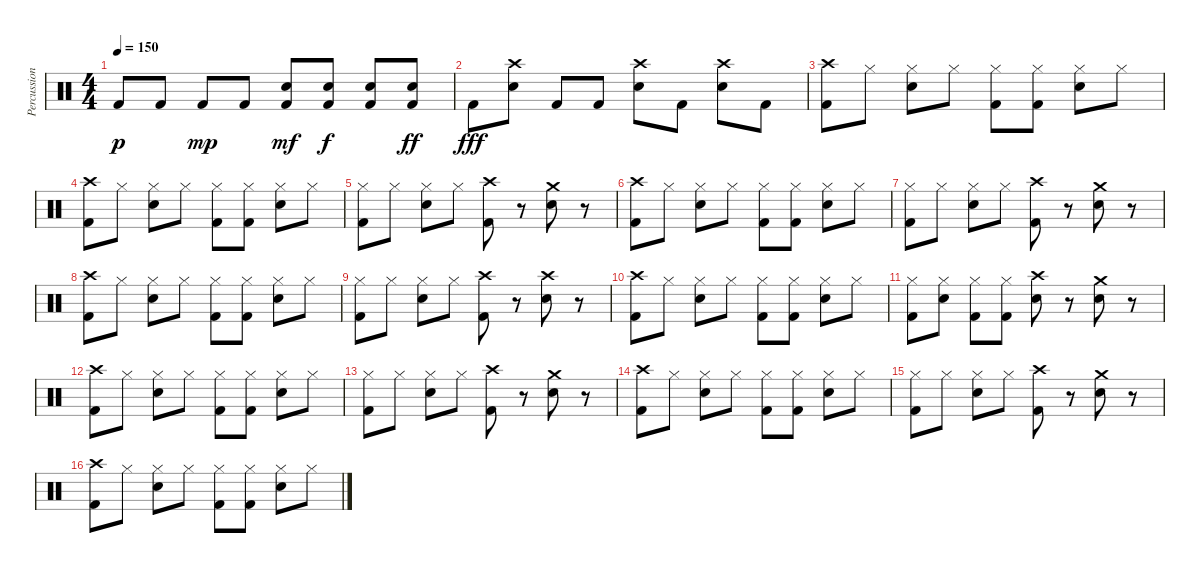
\track ("Percussion" "Percussion") {instrument percussion}
\staff {score}
\articulation defaults
\ts (4 4)
\tempo 150
\clef neutral
\ks c "Kick (hit) 2".8{dy p} "Kick (hit) 2".8 "Kick (hit) 2".8{dy mp} "Kick (hit) 2".8
("Kick (hit) 2" "Snare (hit) 2").8{dy mf} ("Kick (hit) 2" "Snare (hit) 2").8{dy f} ("Kick (hit) 2" "Snare (hit) 2").8 ("Kick (hit) 2" "Snare (hit) 2").8{dy ff} |
"Kick (hit) 2".8{dy fff} ("Snare (hit) 2" "Crash high (hit)").8 "Kick (hit) 2".8 "Kick (hit) 2".8 ("Snare (hit) 2" "Crash high (hit)").8 "Kick (hit) 2".8 ("Snare (hit) 2" "Crash high (hit)").8 "Kick (hit) 2".8 |
("Crash high (hit)" "Kick (hit) 2").8 "Hi-Hat (closed)".8 ("Hi-Hat (closed)" "Snare (hit) 2").8 "Hi-Hat (closed)".8 ("Hi-Hat (closed)" "Kick (hit) 2").8 ("Hi-Hat (closed)" "Kick (hit) 2").8 ("Hi-Hat (closed)" "Snare (hit) 2").8 "Hi-Hat (closed)".8 |
("Crash high (hit)" "Kick (hit) 2").8 "Hi-Hat (closed)".8 ("Hi-Hat (closed)" "Snare (hit) 2").8 "Hi-Hat (closed)".8 ("Hi-Hat (closed)" "Kick (hit) 2").8 ("Hi-Hat (closed)" "Kick (hit) 2").8 ("Hi-Hat (closed)" "Snare (hit) 2").8 "Hi-Hat (closed)".8 |
("Hi-Hat (closed)" "Kick (hit) 2").8 "Hi-Hat (closed)".8 ("Hi-Hat (closed)" "Snare (hit) 2").8 "Hi-Hat (closed)".8 ("Crash high (hit)" "Kick (hit) 2").8 r.8 ("Snare (hit) 2" "Crash medium (hit)").8 r.8 |
("Kick (hit) 2" "Crash high (hit)").8 "Hi-Hat (closed)".8 ("Hi-Hat (closed)" "Snare (hit) 2").8 "Hi-Hat (closed)".8 ("Hi-Hat (closed)" "Kick (hit) 2").8 ("Hi-Hat (closed)" "Kick (hit) 2").8 ("Hi-Hat (closed)" "Snare (hit) 2").8 "Hi-Hat (closed)".8 |
("Hi-Hat (closed)" "Kick (hit) 2").8 "Hi-Hat (closed)".8 ("Hi-Hat (closed)" "Snare (hit) 2").8 "Hi-Hat (closed)".8 ("Crash high (hit)" "Kick (hit) 2").8 r.8 ("Snare (hit) 2" "Crash medium (hit)").8 r.8 |
("Kick (hit) 2" "Crash high (hit)").8 "Hi-Hat (closed)".8 ("Hi-Hat (closed)" "Snare (hit) 2").8 "Hi-Hat (closed)".8 ("Hi-Hat (closed)" "Kick (hit) 2").8 ("Hi-Hat (closed)" "Kick (hit) 2").8 ("Hi-Hat (closed)" "Snare (hit) 2").8 "Hi-Hat (closed)".8 |
("Hi-Hat (closed)" "Kick (hit) 2").8 "Hi-Hat (closed)".8 ("Hi-Hat (closed)" "Snare (hit) 2").8 "Hi-Hat (closed)".8 ("Crash high (hit)" "Kick (hit) 2").8 r.8 ("Snare (hit) 2" "Crash high (hit)").8 r.8 |
("Kick (hit) 2" "Crash high (hit)").8 "Hi-Hat (closed)".8 ("Hi-Hat (closed)" "Snare (hit) 2").8 "Hi-Hat (closed)".8 ("Hi-Hat (closed)" "Kick (hit) 2").8 ("Hi-Hat (closed)" "Kick (hit) 2").8 ("Hi-Hat (closed)" "Snare (hit) 2").8 "Hi-Hat (closed)".8 |
("Hi-Hat (closed)" "Kick (hit) 2").8 ("Hi-Hat (closed)" "Snare (hit) 2").8 ("Hi-Hat (closed)" "Kick (hit) 2").8 ("Hi-Hat (closed)" "Kick (hit) 2").8 ("Crash high (hit)" "Snare (hit) 2").8 r.8 ("Snare (hit) 2" "Crash medium (hit)").8 r.8 |
("Kick (hit) 2" "Crash high (hit)").8 "Hi-Hat (closed)".8 ("Hi-Hat (closed)" "Snare (hit) 2").8 "Hi-Hat (closed)".8 ("Hi-Hat (closed)" "Kick (hit) 2").8 ("Hi-Hat (closed)" "Kick (hit) 2").8 ("Hi-Hat (closed)" "Snare (hit) 2").8 "Hi-Hat (closed)".8 |
("Hi-Hat (closed)" "Kick (hit) 2").8 "Hi-Hat (closed)".8 ("Hi-Hat (closed)" "Snare (hit) 2").8 "Hi-Hat (closed)".8 ("Crash high (hit)" "Kick (hit) 2").8 r.8 ("Snare (hit) 2" "Crash medium (hit)").8 r.8 |
("Kick (hit) 2" "Crash high (hit)").8 "Hi-Hat (closed)".8 ("Hi-Hat (closed)" "Snare (hit) 2").8 "Hi-Hat (closed)".8 ("Hi-Hat (closed)" "Kick (hit) 2").8 ("Hi-Hat (closed)" "Kick (hit) 2").8 ("Hi-Hat (closed)" "Snare (hit) 2").8 "Hi-Hat (closed)".8 |
("Hi-Hat (closed)" "Kick (hit) 2").8 "Hi-Hat (closed)".8 ("Hi-Hat (closed)" "Snare (hit) 2").8 "Hi-Hat (closed)".8 ("Crash high (hit)" "Kick (hit) 2").8 r.8 ("Snare (hit) 2" "Crash medium (hit)").8 r.8 |
("Kick (hit) 2" "Crash high (hit)").8 "Hi-Hat (closed)".8 ("Hi-Hat (closed)" "Snare (hit) 2").8 "Hi-Hat (closed)".8 ("Hi-Hat (closed)" "Kick (hit) 2").8 ("Hi-Hat (closed)" "Kick (hit) 2").8 ("Hi-Hat (closed)" "Snare (hit) 2").8 "Hi-Hat (closed)".8
